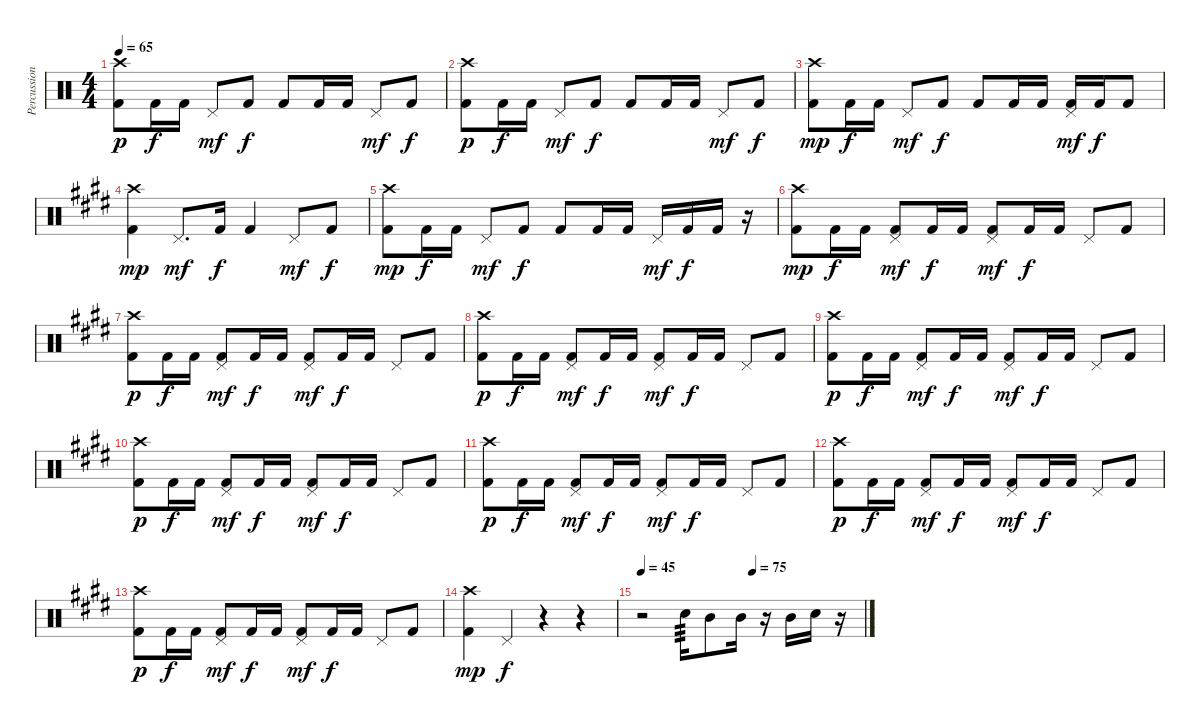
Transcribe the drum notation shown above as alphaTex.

\track ("Percussion" "Percussion") {instrument percussion}
\staff {score}
\articulation defaults
\ts (4 4)
\tempo 65
\clef neutral
\ks c
("Crash high (hit)" "Kick (hit) 2").8{dy p} "Kick (hit) 2".16{dy f} "Kick (hit) 2".16 "Pedal Hi-Hat (hit)".8{dy mf} "Kick (hit) 2".8{dy f} "Kick (hit) 2".8 "Kick (hit) 2".16 "Kick (hit) 2".16 "Pedal Hi-Hat (hit)".8{dy mf} "Kick (hit) 2".8{dy f} |
("Crash high (hit)" "Kick (hit) 2").8{dy p} "Kick (hit) 2".16{dy f} "Kick (hit) 2".16 "Pedal Hi-Hat (hit)".8{dy mf} "Kick (hit) 2".8{dy f} "Kick (hit) 2".8 "Kick (hit) 2".16 "Kick (hit) 2".16 "Pedal Hi-Hat (hit)".8{dy mf} "Kick (hit) 2".8{dy f} |
("Crash high (hit)" "Kick (hit) 2").8{dy mp} "Kick (hit) 2".16{dy f} "Kick (hit) 2".16 "Pedal Hi-Hat (hit)".8{dy mf} "Kick (hit) 2".8{dy f} "Kick (hit) 2".8 "Kick (hit) 2".16 "Kick (hit) 2".16 ("Pedal Hi-Hat (hit)" "Kick (hit) 2").16{dy mf} "Kick (hit) 2".16{dy f} "Kick (hit) 2".8 |
\ks e
("Crash high (hit)" "Kick (hit) 2").4{dy mp} "Pedal Hi-Hat (hit)".8{d dy mf} "Kick (hit) 2".16{dy f} "Kick (hit) 2".4 "Pedal Hi-Hat (hit)".8{dy mf} "Kick (hit) 2".8{dy f} |
("Crash high (hit)" "Kick (hit) 2").8{dy mp} "Kick (hit) 2".16{dy f} "Kick (hit) 2".16 "Pedal Hi-Hat (hit)".8{dy mf} "Kick (hit) 2".8{dy f} "Kick (hit) 2".8 "Kick (hit) 2".16 "Kick (hit) 2".16 "Pedal Hi-Hat (hit)".16{dy mf} "Kick (hit) 2".16{dy f} "Kick (hit) 2".16 r.16 |
("Crash high (hit)" "Kick (hit) 2").8{dy mp} "Kick (hit) 2".16{dy f} "Kick (hit) 2".16 ("Pedal Hi-Hat (hit)" "Kick (hit) 2").8{dy mf} "Kick (hit) 2".16{dy f} "Kick (hit) 2".16 ("Pedal Hi-Hat (hit)" "Kick (hit) 2").8{dy mf} "Kick (hit) 2".16{dy f} "Kick (hit) 2".16 "Pedal Hi-Hat (hit)".8 "Kick (hit) 2".8 |
("Crash high (hit)" "Kick (hit) 2").8{dy p} "Kick (hit) 2".16{dy f} "Kick (hit) 2".16 ("Pedal Hi-Hat (hit)" "Kick (hit) 2").8{dy mf} "Kick (hit) 2".16{dy f} "Kick (hit) 2".16 ("Pedal Hi-Hat (hit)" "Kick (hit) 2").8{dy mf} "Kick (hit) 2".16{dy f} "Kick (hit) 2".16 "Pedal Hi-Hat (hit)".8 "Kick (hit) 2".8 |
("Crash high (hit)" "Kick (hit) 2").8{dy p} "Kick (hit) 2".16{dy f} "Kick (hit) 2".16 ("Pedal Hi-Hat (hit)" "Kick (hit) 2").8{dy mf} "Kick (hit) 2".16{dy f} "Kick (hit) 2".16 ("Pedal Hi-Hat (hit)" "Kick (hit) 2").8{dy mf} "Kick (hit) 2".16{dy f} "Kick (hit) 2".16 "Pedal Hi-Hat (hit)".8 "Kick (hit) 2".8 |
("Crash high (hit)" "Kick (hit) 2").8{dy p} "Kick (hit) 2".16{dy f} "Kick (hit) 2".16 ("Pedal Hi-Hat (hit)" "Kick (hit) 2").8{dy mf} "Kick (hit) 2".16{dy f} "Kick (hit) 2".16 ("Pedal Hi-Hat (hit)" "Kick (hit) 2").8{dy mf} "Kick (hit) 2".16{dy f} "Kick (hit) 2".16 "Pedal Hi-Hat (hit)".8 "Kick (hit) 2".8 |
("Crash high (hit)" "Kick (hit) 2").8{dy p} "Kick (hit) 2".16{dy f} "Kick (hit) 2".16 ("Pedal Hi-Hat (hit)" "Kick (hit) 2").8{dy mf} "Kick (hit) 2".16{dy f} "Kick (hit) 2".16 ("Pedal Hi-Hat (hit)" "Kick (hit) 2").8{dy mf} "Kick (hit) 2".16{dy f} "Kick (hit) 2".16 "Pedal Hi-Hat (hit)".8 "Kick (hit) 2".8 |
("Crash high (hit)" "Kick (hit) 2").8{dy p} "Kick (hit) 2".16{dy f} "Kick (hit) 2".16 ("Pedal Hi-Hat (hit)" "Kick (hit) 2").8{dy mf} "Kick (hit) 2".16{dy f} "Kick (hit) 2".16 ("Pedal Hi-Hat (hit)" "Kick (hit) 2").8{dy mf} "Kick (hit) 2".16{dy f} "Kick (hit) 2".16 "Pedal Hi-Hat (hit)".8 "Kick (hit) 2".8 |
("Crash high (hit)" "Kick (hit) 2").8{dy p} "Kick (hit) 2".16{dy f} "Kick (hit) 2".16 ("Pedal Hi-Hat (hit)" "Kick (hit) 2").8{dy mf} "Kick (hit) 2".16{dy f} "Kick (hit) 2".16 ("Pedal Hi-Hat (hit)" "Kick (hit) 2").8{dy mf} "Kick (hit) 2".16{dy f} "Kick (hit) 2".16 "Pedal Hi-Hat (hit)".8 "Kick (hit) 2".8 |
("Crash high (hit)" "Kick (hit) 2").8{dy p} "Kick (hit) 2".16{dy f} "Kick (hit) 2".16 ("Pedal Hi-Hat (hit)" "Kick (hit) 2").8{dy mf} "Kick (hit) 2".16{dy f} "Kick (hit) 2".16 ("Pedal Hi-Hat (hit)" "Kick (hit) 2").8{dy mf} "Kick (hit) 2".16{dy f} "Kick (hit) 2".16 "Pedal Hi-Hat (hit)".8 "Kick (hit) 2".8 |
("Crash high (hit)" "Kick (hit) 2").4{dy mp} "Pedal Hi-Hat (hit)".4{dy f} r.4 r.4 |
\tempo 45
\tempo (75 0.5)
r.2 "Snare (hit) 2".16{tp 3} "Mid Tom (hit)".8 "Mid Tom (hit)".16 r.16 "Mid Tom (hit)".16 "Snare (hit) 2".16 r.16
